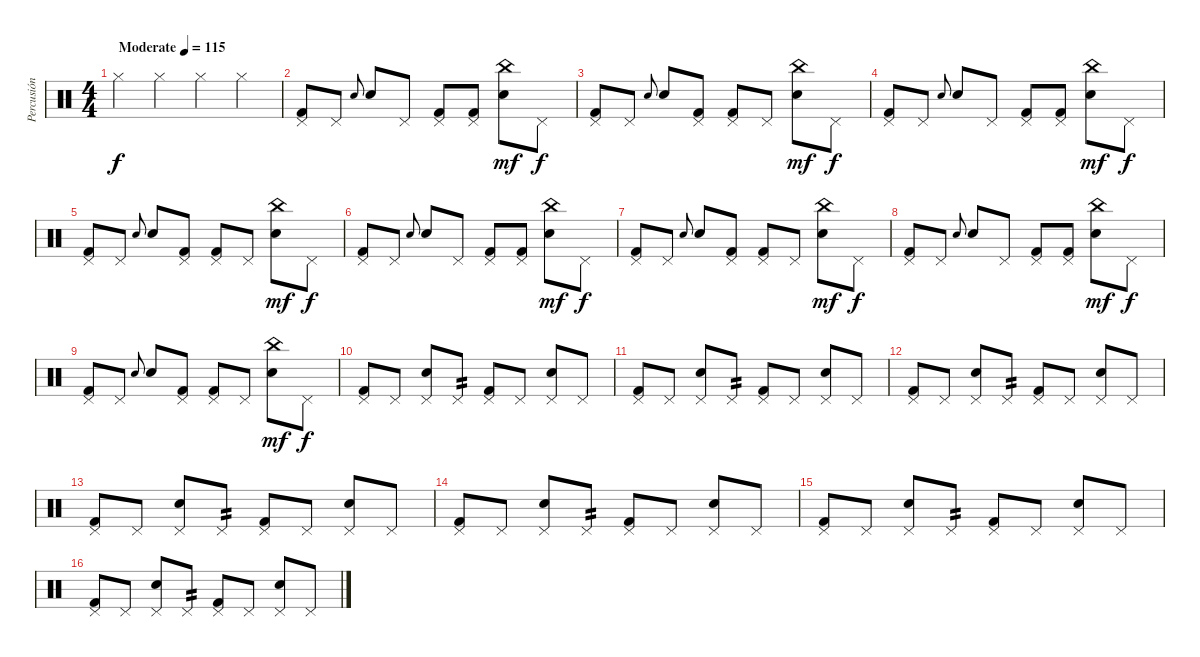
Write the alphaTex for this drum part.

\track ("Percusión" "Percusión") {instrument percussion}
\staff {score}
\articulation defaults
\ts (4 4)
\tempo (115 "Moderate")
\clef neutral
\ks c "Hi-Hat (closed)".4{dy f} "Hi-Hat (closed)".4 "Hi-Hat (closed)".4 "Hi-Hat (closed)".4
|
("Pedal Hi-Hat (hit)" "Kick (hit) 2").8 "Pedal Hi-Hat (hit)".8 "Electric Snare (hit)".8{gr onbeat} "Electric Snare (hit)".8 "Pedal Hi-Hat (hit)".8 ("Pedal Hi-Hat (hit)" "Kick (hit) 2").8 ("Pedal Hi-Hat (hit)" "Kick (hit) 2").8 ("China (hit)" "Electric Snare (hit)").8{dy mf} "Pedal Hi-Hat (hit)".8{dy f} |
("Pedal Hi-Hat (hit)" "Kick (hit) 2").8 "Pedal Hi-Hat (hit)".8 "Electric Snare (hit)".8{gr onbeat} "Electric Snare (hit)".8 ("Pedal Hi-Hat (hit)" "Kick (hit) 2").8 ("Pedal Hi-Hat (hit)" "Kick (hit) 2").8 "Pedal Hi-Hat (hit)".8 ("China (hit)" "Electric Snare (hit)").8{dy mf} "Pedal Hi-Hat (hit)".8{dy f} |
("Pedal Hi-Hat (hit)" "Kick (hit) 2").8 "Pedal Hi-Hat (hit)".8 "Electric Snare (hit)".8{gr onbeat} "Electric Snare (hit)".8 "Pedal Hi-Hat (hit)".8 ("Pedal Hi-Hat (hit)" "Kick (hit) 2").8 ("Pedal Hi-Hat (hit)" "Kick (hit) 2").8 ("China (hit)" "Electric Snare (hit)").8{dy mf} "Pedal Hi-Hat (hit)".8{dy f} |
("Pedal Hi-Hat (hit)" "Kick (hit) 2").8 "Pedal Hi-Hat (hit)".8 "Electric Snare (hit)".8{gr onbeat} "Electric Snare (hit)".8 ("Pedal Hi-Hat (hit)" "Kick (hit) 2").8 ("Pedal Hi-Hat (hit)" "Kick (hit) 2").8 "Pedal Hi-Hat (hit)".8 ("China (hit)" "Electric Snare (hit)").8{dy mf} "Pedal Hi-Hat (hit)".8{dy f} |
("Pedal Hi-Hat (hit)" "Kick (hit) 2").8 "Pedal Hi-Hat (hit)".8 "Electric Snare (hit)".8{gr onbeat} "Electric Snare (hit)".8 "Pedal Hi-Hat (hit)".8 ("Pedal Hi-Hat (hit)" "Kick (hit) 2").8 ("Pedal Hi-Hat (hit)" "Kick (hit) 2").8 ("China (hit)" "Electric Snare (hit)").8{dy mf} "Pedal Hi-Hat (hit)".8{dy f} |
("Pedal Hi-Hat (hit)" "Kick (hit) 2").8 "Pedal Hi-Hat (hit)".8 "Electric Snare (hit)".8{gr onbeat} "Electric Snare (hit)".8 ("Pedal Hi-Hat (hit)" "Kick (hit) 2").8 ("Pedal Hi-Hat (hit)" "Kick (hit) 2").8 "Pedal Hi-Hat (hit)".8 ("China (hit)" "Electric Snare (hit)").8{dy mf} "Pedal Hi-Hat (hit)".8{dy f} |
("Pedal Hi-Hat (hit)" "Kick (hit) 2").8 "Pedal Hi-Hat (hit)".8 "Electric Snare (hit)".8{gr onbeat} "Electric Snare (hit)".8 "Pedal Hi-Hat (hit)".8 ("Pedal Hi-Hat (hit)" "Kick (hit) 2").8 ("Pedal Hi-Hat (hit)" "Kick (hit) 2").8 ("China (hit)" "Electric Snare (hit)").8{dy mf} "Pedal Hi-Hat (hit)".8{dy f} |
("Pedal Hi-Hat (hit)" "Kick (hit) 2").8 "Pedal Hi-Hat (hit)".8 "Electric Snare (hit)".8{gr onbeat} "Electric Snare (hit)".8 ("Pedal Hi-Hat (hit)" "Kick (hit) 2").8 ("Pedal Hi-Hat (hit)" "Kick (hit) 2").8 "Pedal Hi-Hat (hit)".8 ("China (hit)" "Electric Snare (hit)").8{dy mf} "Pedal Hi-Hat (hit)".8{dy f} |
("Pedal Hi-Hat (hit)" "Kick (hit) 2").8 "Pedal Hi-Hat (hit)".8 ("Pedal Hi-Hat (hit)" "Electric Snare (hit)").8 "Pedal Hi-Hat (hit)".8{tp 2} ("Pedal Hi-Hat (hit)" "Kick (hit) 2").8 "Pedal Hi-Hat (hit)".8 ("Pedal Hi-Hat (hit)" "Electric Snare (hit)").8 "Pedal Hi-Hat (hit)".8 |
("Pedal Hi-Hat (hit)" "Kick (hit) 2").8 "Pedal Hi-Hat (hit)".8 ("Pedal Hi-Hat (hit)" "Electric Snare (hit)").8 "Pedal Hi-Hat (hit)".8{tp 2} ("Pedal Hi-Hat (hit)" "Kick (hit) 2").8 "Pedal Hi-Hat (hit)".8 ("Pedal Hi-Hat (hit)" "Electric Snare (hit)").8 "Pedal Hi-Hat (hit)".8 |
("Pedal Hi-Hat (hit)" "Kick (hit) 2").8 "Pedal Hi-Hat (hit)".8 ("Pedal Hi-Hat (hit)" "Electric Snare (hit)").8 "Pedal Hi-Hat (hit)".8{tp 2} ("Pedal Hi-Hat (hit)" "Kick (hit) 2").8 "Pedal Hi-Hat (hit)".8 ("Pedal Hi-Hat (hit)" "Electric Snare (hit)").8 "Pedal Hi-Hat (hit)".8 |
("Pedal Hi-Hat (hit)" "Kick (hit) 2").8 "Pedal Hi-Hat (hit)".8 ("Pedal Hi-Hat (hit)" "Electric Snare (hit)").8 "Pedal Hi-Hat (hit)".8{tp 2} ("Pedal Hi-Hat (hit)" "Kick (hit) 2").8 "Pedal Hi-Hat (hit)".8 ("Pedal Hi-Hat (hit)" "Electric Snare (hit)").8 "Pedal Hi-Hat (hit)".8 |
("Pedal Hi-Hat (hit)" "Kick (hit) 2").8 "Pedal Hi-Hat (hit)".8 ("Pedal Hi-Hat (hit)" "Electric Snare (hit)").8 "Pedal Hi-Hat (hit)".8{tp 2} ("Pedal Hi-Hat (hit)" "Kick (hit) 2").8 "Pedal Hi-Hat (hit)".8 ("Pedal Hi-Hat (hit)" "Electric Snare (hit)").8 "Pedal Hi-Hat (hit)".8 |
("Pedal Hi-Hat (hit)" "Kick (hit) 2").8 "Pedal Hi-Hat (hit)".8 ("Pedal Hi-Hat (hit)" "Electric Snare (hit)").8 "Pedal Hi-Hat (hit)".8{tp 2} ("Pedal Hi-Hat (hit)" "Kick (hit) 2").8 "Pedal Hi-Hat (hit)".8 ("Pedal Hi-Hat (hit)" "Electric Snare (hit)").8 "Pedal Hi-Hat (hit)".8 |
("Pedal Hi-Hat (hit)" "Kick (hit) 2").8 "Pedal Hi-Hat (hit)".8 ("Pedal Hi-Hat (hit)" "Electric Snare (hit)").8 "Pedal Hi-Hat (hit)".8{tp 2} ("Pedal Hi-Hat (hit)" "Kick (hit) 2").8 "Pedal Hi-Hat (hit)".8 ("Pedal Hi-Hat (hit)" "Electric Snare (hit)").8 "Pedal Hi-Hat (hit)".8
